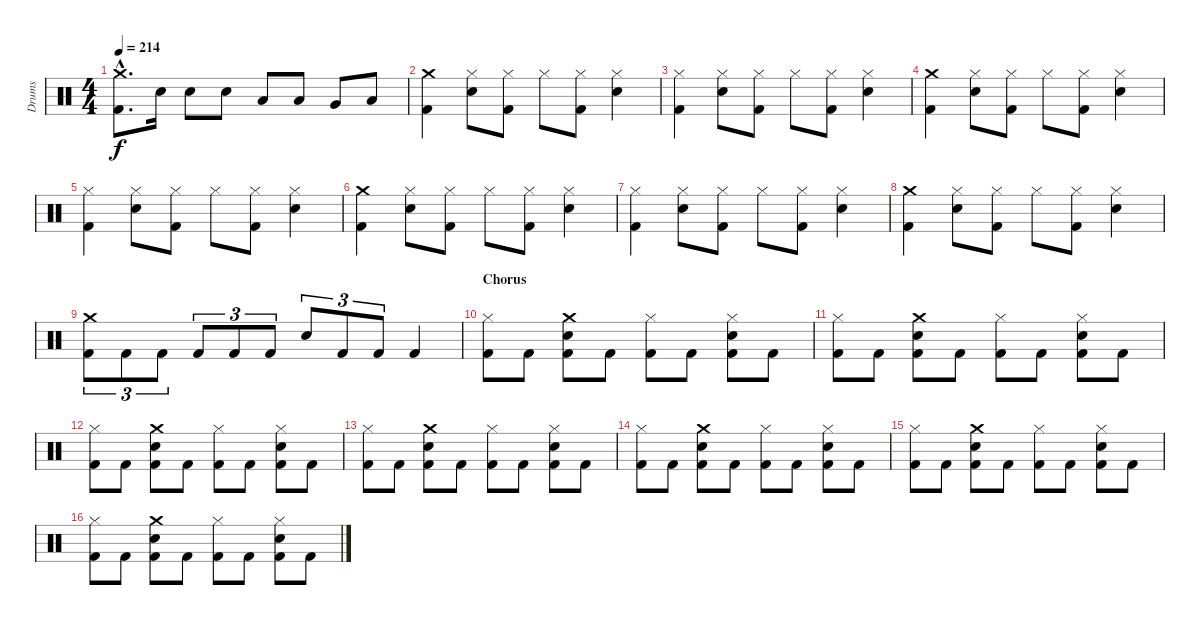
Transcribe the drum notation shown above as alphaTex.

\track ("Drums" "Drums") {instrument percussion}
\staff {score}
\articulation defaults
\ts (4 4)
\tempo 214
\clef neutral
\ks c
("Crash medium (hit)"{hac} "Kick (hit) 2"{hac}).8{d dy f} "Electric Snare (hit)".16 "Electric Snare (hit)".8 "Electric Snare (hit)".8 "Low Tom (hit)".8 "Low Tom (hit)".8 "Very Low Tom (hit)".8 "Low Floor Tom (hit)".8 |
("Crash medium (hit)" "Kick (hit) 2").4 ("Hi-Hat (closed)" "Electric Snare (hit)").8 ("Hi-Hat (closed)" "Kick (hit) 2").8 "Hi-Hat (closed)".8 ("Hi-Hat (closed)" "Kick (hit) 2").8 ("Hi-Hat (closed)" "Electric Snare (hit)").4 |
("Hi-Hat (closed)" "Kick (hit) 2").4 ("Hi-Hat (closed)" "Electric Snare (hit)").8 ("Hi-Hat (closed)" "Kick (hit) 2").8 "Hi-Hat (closed)".8 ("Hi-Hat (closed)" "Kick (hit) 2").8 ("Hi-Hat (closed)" "Electric Snare (hit)").4 |
("Crash medium (hit)" "Kick (hit) 2").4 ("Hi-Hat (closed)" "Electric Snare (hit)").8 ("Hi-Hat (closed)" "Kick (hit) 2").8 "Hi-Hat (closed)".8 ("Hi-Hat (closed)" "Kick (hit) 2").8 ("Hi-Hat (closed)" "Electric Snare (hit)").4 |
("Hi-Hat (closed)" "Kick (hit) 2").4 ("Hi-Hat (closed)" "Electric Snare (hit)").8 ("Hi-Hat (closed)" "Kick (hit) 2").8 "Hi-Hat (closed)".8 ("Hi-Hat (closed)" "Kick (hit) 2").8 ("Hi-Hat (closed)" "Electric Snare (hit)").4 |
("Crash medium (hit)" "Kick (hit) 2").4 ("Hi-Hat (closed)" "Electric Snare (hit)").8 ("Hi-Hat (closed)" "Kick (hit) 2").8 "Hi-Hat (closed)".8 ("Hi-Hat (closed)" "Kick (hit) 2").8 ("Hi-Hat (closed)" "Electric Snare (hit)").4 |
("Hi-Hat (closed)" "Kick (hit) 2").4 ("Hi-Hat (closed)" "Electric Snare (hit)").8 ("Hi-Hat (closed)" "Kick (hit) 2").8 "Hi-Hat (closed)".8 ("Hi-Hat (closed)" "Kick (hit) 2").8 ("Hi-Hat (closed)" "Electric Snare (hit)").4 |
("Crash medium (hit)" "Kick (hit) 2").4 ("Hi-Hat (closed)" "Electric Snare (hit)").8 ("Hi-Hat (closed)" "Kick (hit) 2").8 "Hi-Hat (closed)".8 ("Hi-Hat (closed)" "Kick (hit) 2").8 ("Hi-Hat (closed)" "Electric Snare (hit)").4 |
("Crash medium (hit)" "Kick (hit) 2").8{tu (3 2)} "Kick (hit) 2".8{tu (3 2)} "Kick (hit) 2".8{tu (3 2)} "Kick (hit) 2".8{tu (3 2)} "Kick (hit) 2".8{tu (3 2)} "Kick (hit) 2".8{tu (3 2)} "Electric Snare (hit)".8{tu (3 2)} "Kick (hit) 2".8{tu (3 2)} "Kick (hit) 2".8{tu (3 2)} "Kick (hit) 2".4 |
\section ("" "Chorus")
("Hi-Hat (closed)" "Kick (hit) 2").8 "Kick (hit) 2".8 ("Crash medium (hit)" "Electric Snare (hit)" "Kick (hit) 2").8 "Kick (hit) 2".8 ("Hi-Hat (closed)" "Kick (hit) 2").8 "Kick (hit) 2".8 ("Hi-Hat (closed)" "Electric Snare (hit)" "Kick (hit) 2").8 "Kick (hit) 2".8 |
("Hi-Hat (closed)" "Kick (hit) 2").8 "Kick (hit) 2".8 ("Crash medium (hit)" "Electric Snare (hit)" "Kick (hit) 2").8 "Kick (hit) 2".8 ("Hi-Hat (closed)" "Kick (hit) 2").8 "Kick (hit) 2".8 ("Hi-Hat (closed)" "Electric Snare (hit)" "Kick (hit) 2").8 "Kick (hit) 2".8 |
("Hi-Hat (closed)" "Kick (hit) 2").8 "Kick (hit) 2".8 ("Crash medium (hit)" "Electric Snare (hit)" "Kick (hit) 2").8 "Kick (hit) 2".8 ("Hi-Hat (closed)" "Kick (hit) 2").8 "Kick (hit) 2".8 ("Hi-Hat (closed)" "Electric Snare (hit)" "Kick (hit) 2").8 "Kick (hit) 2".8 |
("Hi-Hat (closed)" "Kick (hit) 2").8 "Kick (hit) 2".8 ("Crash medium (hit)" "Electric Snare (hit)" "Kick (hit) 2").8 "Kick (hit) 2".8 ("Hi-Hat (closed)" "Kick (hit) 2").8 "Kick (hit) 2".8 ("Hi-Hat (closed)" "Electric Snare (hit)" "Kick (hit) 2").8 "Kick (hit) 2".8 |
("Hi-Hat (closed)" "Kick (hit) 2").8 "Kick (hit) 2".8 ("Crash medium (hit)" "Electric Snare (hit)" "Kick (hit) 2").8 "Kick (hit) 2".8 ("Hi-Hat (closed)" "Kick (hit) 2").8 "Kick (hit) 2".8 ("Hi-Hat (closed)" "Electric Snare (hit)" "Kick (hit) 2").8 "Kick (hit) 2".8 |
("Hi-Hat (closed)" "Kick (hit) 2").8 "Kick (hit) 2".8 ("Crash medium (hit)" "Electric Snare (hit)" "Kick (hit) 2").8 "Kick (hit) 2".8 ("Hi-Hat (closed)" "Kick (hit) 2").8 "Kick (hit) 2".8 ("Hi-Hat (closed)" "Electric Snare (hit)" "Kick (hit) 2").8 "Kick (hit) 2".8 |
("Hi-Hat (closed)" "Kick (hit) 2").8 "Kick (hit) 2".8 ("Crash medium (hit)" "Electric Snare (hit)" "Kick (hit) 2").8 "Kick (hit) 2".8 ("Hi-Hat (closed)" "Kick (hit) 2").8 "Kick (hit) 2".8 ("Hi-Hat (closed)" "Electric Snare (hit)" "Kick (hit) 2").8 "Kick (hit) 2".8
